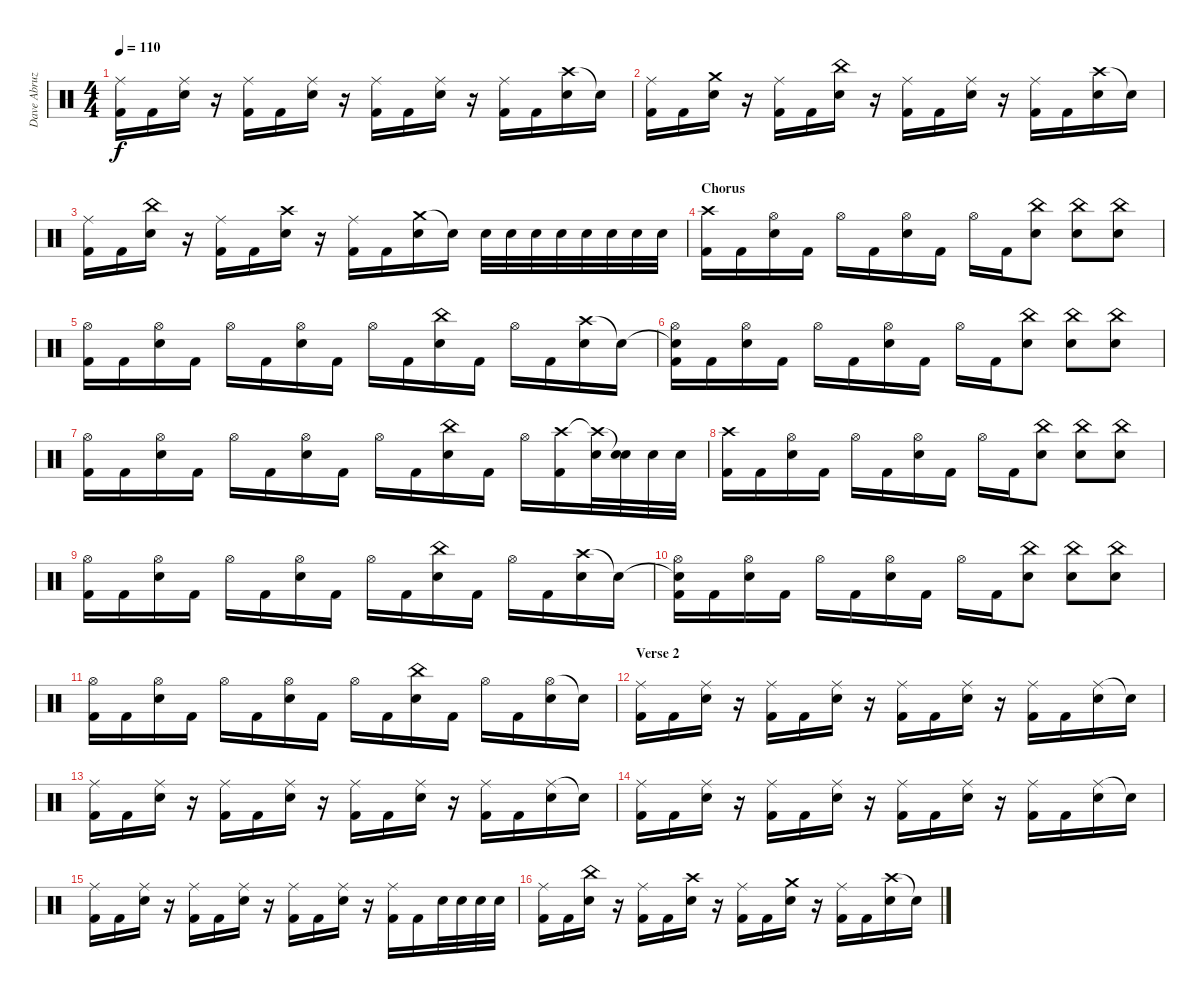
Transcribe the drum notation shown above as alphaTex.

\track ("Dave Abruzzese" "Dave Abruz") {instrument percussion}
\staff {score}
\articulation defaults
\ts (4 4)
\tempo 110
\clef neutral
\ks c
("Ride (middle)" "Kick (hit) 2").16{dy f} "Kick (hit) 2".16 ("Ride (middle)" "Electric Snare (hit)").16 r.16 ("Ride (middle)" "Kick (hit) 2").16 "Kick (hit) 2".16 ("Ride (middle)" "Electric Snare (hit)").16 r.16 ("Ride (middle)" "Kick (hit) 2").16 "Kick (hit) 2".16 ("Ride (middle)" "Electric Snare (hit)").16 r.16 ("Ride (middle)" "Kick (hit) 2").16 "Kick (hit) 2".16 ("Crash high (hit)" "Electric Snare (hit)").16 "Snare (hit)"{t}.16 |
("Ride (middle)" "Kick (hit) 2").16 "Kick (hit) 2".16 ("Crash medium (hit)" "Electric Snare (hit)").16 r.16 ("Ride (middle)" "Kick (hit) 2").16 "Kick (hit) 2".16 ("China (hit)" "Electric Snare (hit)").16 r.16 ("Ride (middle)" "Kick (hit) 2").16 "Kick (hit) 2".16 ("Ride (middle)" "Electric Snare (hit)").16 r.16 ("Ride (middle)" "Kick (hit) 2").16 "Kick (hit) 2".16 ("Crash high (hit)" "Electric Snare (hit)").16 "Snare (hit)"{t}.16 |
("Ride (middle)" "Kick (hit) 2").16 "Kick (hit) 2".16 ("China (hit)" "Electric Snare (hit)").16 r.16 ("Ride (middle)" "Kick (hit) 2").16 "Kick (hit) 2".16 ("Crash high (hit)" "Electric Snare (hit)").16 r.16 ("Ride (middle)" "Kick (hit) 2").16 "Kick (hit) 2".16 ("Crash medium (hit)" "Electric Snare (hit)").16 "Snare (hit)"{t}.16 "Electric Snare (hit)".32 "Electric Snare (hit)".32 "Electric Snare (hit)".32 "Electric Snare (hit)".32 "Electric Snare (hit)".32 "Electric Snare (hit)".32 "Electric Snare (hit)".32 "Electric Snare (hit)".32 |
\section ("" "Chorus")
("Crash high (hit)" "Kick (hit) 2").16 "Kick (hit) 2".16 ("Hi-Hat (open)" "Electric Snare (hit)").16 "Kick (hit) 2".16 "Hi-Hat (open)".16 "Kick (hit) 2".16 ("Hi-Hat (open)" "Electric Snare (hit)").16 "Kick (hit) 2".16 "Hi-Hat (open)".16 "Kick (hit) 2".16 ("China (hit)" "Electric Snare (hit)").8 ("China (hit)" "Electric Snare (hit)").8 ("China (hit)" "Electric Snare (hit)").8 |
("Hi-Hat (open)" "Kick (hit) 2").16 "Kick (hit) 2".16 ("Hi-Hat (open)" "Electric Snare (hit)").16 "Kick (hit) 2".16 "Hi-Hat (open)".16 "Kick (hit) 2".16 ("Hi-Hat (open)" "Electric Snare (hit)").16 "Kick (hit) 2".16 "Hi-Hat (open)".16 "Kick (hit) 2".16 ("China (hit)" "Electric Snare (hit)").16 "Kick (hit) 2".16 "Hi-Hat (open)".16 "Kick (hit) 2".16 ("Crash high (hit)" "Electric Snare (hit)").16 "Snare (hit)"{t}.16 |
("Snare (hit)"{t} "Hi-Hat (open)" "Kick (hit) 2").16 "Kick (hit) 2".16 ("Hi-Hat (open)" "Electric Snare (hit)").16 "Kick (hit) 2".16 "Hi-Hat (open)".16 "Kick (hit) 2".16 ("Hi-Hat (open)" "Electric Snare (hit)").16 "Kick (hit) 2".16 "Hi-Hat (open)".16 "Kick (hit) 2".16 ("China (hit)" "Electric Snare (hit)").8 ("China (hit)" "Electric Snare (hit)").8 ("China (hit)" "Electric Snare (hit)").8 |
("Hi-Hat (open)" "Kick (hit) 2").16 "Kick (hit) 2".16 ("Hi-Hat (open)" "Electric Snare (hit)").16 "Kick (hit) 2".16 "Hi-Hat (open)".16 "Kick (hit) 2".16 ("Hi-Hat (open)" "Electric Snare (hit)").16 "Kick (hit) 2".16 "Hi-Hat (open)".16 "Kick (hit) 2".16 ("China (hit)" "Electric Snare (hit)").16 "Kick (hit) 2".16 "Hi-Hat (open)".16 ("Crash high (hit)" "Kick (hit) 2").16 ("Crash high (hit)"{t} "Electric Snare (hit)").32 ("Snare (hit)"{t} "Electric Snare (hit)").32 "Electric Snare (hit)".32 "Electric Snare (hit)".32 |
("Crash high (hit)" "Kick (hit) 2").16 "Kick (hit) 2".16 ("Hi-Hat (open)" "Electric Snare (hit)").16 "Kick (hit) 2".16 "Hi-Hat (open)".16 "Kick (hit) 2".16 ("Hi-Hat (open)" "Electric Snare (hit)").16 "Kick (hit) 2".16 "Hi-Hat (open)".16 "Kick (hit) 2".16 ("China (hit)" "Electric Snare (hit)").8 ("China (hit)" "Electric Snare (hit)").8 ("China (hit)" "Electric Snare (hit)").8 |
("Hi-Hat (open)" "Kick (hit) 2").16 "Kick (hit) 2".16 ("Hi-Hat (open)" "Electric Snare (hit)").16 "Kick (hit) 2".16 "Hi-Hat (open)".16 "Kick (hit) 2".16 ("Hi-Hat (open)" "Electric Snare (hit)").16 "Kick (hit) 2".16 "Hi-Hat (open)".16 "Kick (hit) 2".16 ("China (hit)" "Electric Snare (hit)").16 "Kick (hit) 2".16 "Hi-Hat (open)".16 "Kick (hit) 2".16 ("Crash high (hit)" "Electric Snare (hit)").16 "Snare (hit)"{t}.16 |
("Snare (hit)"{t} "Hi-Hat (open)" "Kick (hit) 2").16 "Kick (hit) 2".16 ("Hi-Hat (open)" "Electric Snare (hit)").16 "Kick (hit) 2".16 "Hi-Hat (open)".16 "Kick (hit) 2".16 ("Hi-Hat (open)" "Electric Snare (hit)").16 "Kick (hit) 2".16 "Hi-Hat (open)".16 "Kick (hit) 2".16 ("China (hit)" "Electric Snare (hit)").8 ("China (hit)" "Electric Snare (hit)").8 ("China (hit)" "Electric Snare (hit)").8 |
("Hi-Hat (open)" "Kick (hit) 2").16 "Kick (hit) 2".16 ("Hi-Hat (open)" "Electric Snare (hit)").16 "Kick (hit) 2".16 "Hi-Hat (open)".16 "Kick (hit) 2".16 ("Hi-Hat (open)" "Electric Snare (hit)").16 "Kick (hit) 2".16 "Hi-Hat (open)".16 "Kick (hit) 2".16 ("China (hit)" "Electric Snare (hit)").16 "Kick (hit) 2".16 "Hi-Hat (open)".16 "Kick (hit) 2".16 ("Hi-Hat (open)" "Electric Snare (hit)").16 "Snare (hit)"{t}.16 |
\section ("" "Verse 2")
("Ride (middle)" "Kick (hit) 2").16 "Kick (hit) 2".16 ("Ride (middle)" "Electric Snare (hit)").16 r.16 ("Ride (middle)" "Kick (hit) 2").16 "Kick (hit) 2".16 ("Ride (middle)" "Electric Snare (hit)").16 r.16 ("Ride (middle)" "Kick (hit) 2").16 "Kick (hit) 2".16 ("Ride (middle)" "Electric Snare (hit)").16 r.16 ("Ride (middle)" "Kick (hit) 2").16 "Kick (hit) 2".16 ("Ride (middle)" "Electric Snare (hit)").16 "Snare (hit)"{t}.16 |
("Ride (middle)" "Kick (hit) 2").16 "Kick (hit) 2".16 ("Ride (middle)" "Electric Snare (hit)").16 r.16 ("Ride (middle)" "Kick (hit) 2").16 "Kick (hit) 2".16 ("Ride (middle)" "Electric Snare (hit)").16 r.16 ("Ride (middle)" "Kick (hit) 2").16 "Kick (hit) 2".16 ("Ride (middle)" "Electric Snare (hit)").16 r.16 ("Ride (middle)" "Kick (hit) 2").16 "Kick (hit) 2".16 ("Ride (middle)" "Electric Snare (hit)").16 "Snare (hit)"{t}.16 |
("Ride (middle)" "Kick (hit) 2").16 "Kick (hit) 2".16 ("Ride (middle)" "Electric Snare (hit)").16 r.16 ("Ride (middle)" "Kick (hit) 2").16 "Kick (hit) 2".16 ("Ride (middle)" "Electric Snare (hit)").16 r.16 ("Ride (middle)" "Kick (hit) 2").16 "Kick (hit) 2".16 ("Ride (middle)" "Electric Snare (hit)").16 r.16 ("Ride (middle)" "Kick (hit) 2").16 "Kick (hit) 2".16 ("Ride (middle)" "Electric Snare (hit)").16 "Snare (hit)"{t}.16 |
("Ride (middle)" "Kick (hit) 2").16 "Kick (hit) 2".16 ("Ride (middle)" "Electric Snare (hit)").16 r.16 ("Ride (middle)" "Kick (hit) 2").16 "Kick (hit) 2".16 ("Ride (middle)" "Electric Snare (hit)").16 r.16 ("Ride (middle)" "Kick (hit) 2").16 "Kick (hit) 2".16 ("Ride (middle)" "Electric Snare (hit)").16 r.16 ("Ride (middle)" "Kick (hit) 2").16 "Kick (hit) 2".16 "Electric Snare (hit)".32 "Electric Snare (hit)".32 "Electric Snare (hit)".32 "Electric Snare (hit)".32 |
("Ride (middle)" "Kick (hit) 2").16 "Kick (hit) 2".16 ("China (hit)" "Electric Snare (hit)").16 r.16 ("Ride (middle)" "Kick (hit) 2").16 "Kick (hit) 2".16 ("Crash high (hit)" "Electric Snare (hit)").16 r.16 ("Ride (middle)" "Kick (hit) 2").16 "Kick (hit) 2".16 ("Crash medium (hit)" "Electric Snare (hit)").16 r.16 ("Ride (middle)" "Kick (hit) 2").16 "Kick (hit) 2".16 ("Crash high (hit)" "Electric Snare (hit)").16 "Snare (hit)"{t}.16
